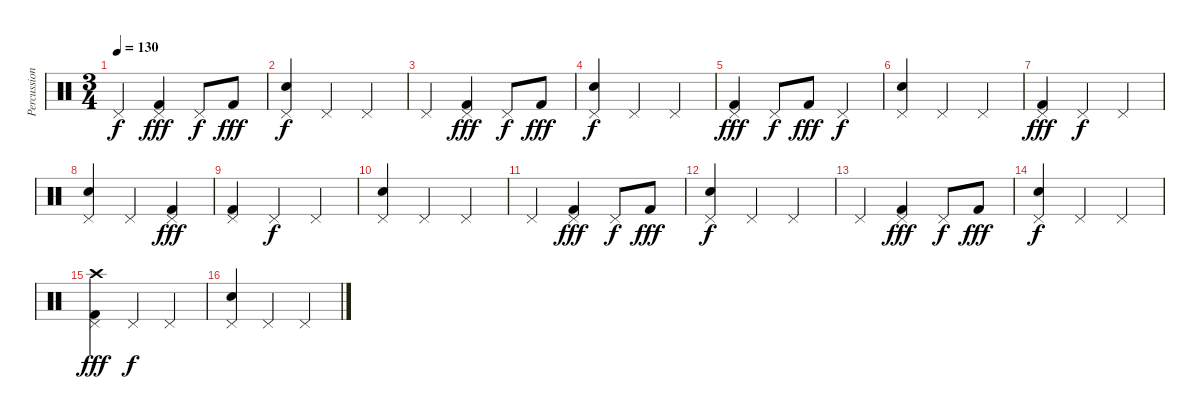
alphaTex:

\track ("Percussion" "Percussion") {instrument percussion}
\staff {score}
\articulation defaults
\ts (3 4)
\tempo 130
\clef neutral
\ks c "Pedal Hi-Hat (hit)".4{dy f}
("Pedal Hi-Hat (hit)" "Kick (hit) 2").4{dy fff} "Pedal Hi-Hat (hit)".8{dy f} "Kick (hit) 2".8{dy fff} |
("Pedal Hi-Hat (hit)" "Electric Snare (hit)").4{dy f} "Pedal Hi-Hat (hit)".4 "Pedal Hi-Hat (hit)".4 |
"Pedal Hi-Hat (hit)".4 ("Pedal Hi-Hat (hit)" "Kick (hit) 2").4{dy fff} "Pedal Hi-Hat (hit)".8{dy f} "Kick (hit) 2".8{dy fff} |
("Pedal Hi-Hat (hit)" "Electric Snare (hit)").4{dy f} "Pedal Hi-Hat (hit)".4 "Pedal Hi-Hat (hit)".4 |
("Pedal Hi-Hat (hit)" "Kick (hit) 2").4{dy fff} "Pedal Hi-Hat (hit)".8{dy f} "Kick (hit) 2".8{dy fff} "Pedal Hi-Hat (hit)".4{dy f} |
("Pedal Hi-Hat (hit)" "Electric Snare (hit)").4 "Pedal Hi-Hat (hit)".4 "Pedal Hi-Hat (hit)".4 |
("Pedal Hi-Hat (hit)" "Kick (hit) 2").4{dy fff} "Pedal Hi-Hat (hit)".4{dy f} "Pedal Hi-Hat (hit)".4 |
("Pedal Hi-Hat (hit)" "Electric Snare (hit)").4 "Pedal Hi-Hat (hit)".4 ("Pedal Hi-Hat (hit)" "Kick (hit) 2").4{dy fff} |
("Pedal Hi-Hat (hit)" "Kick (hit) 2").4 "Pedal Hi-Hat (hit)".4{dy f} "Pedal Hi-Hat (hit)".4 |
("Pedal Hi-Hat (hit)" "Electric Snare (hit)").4 "Pedal Hi-Hat (hit)".4 "Pedal Hi-Hat (hit)".4 |
"Pedal Hi-Hat (hit)".4 ("Pedal Hi-Hat (hit)" "Kick (hit) 2").4{dy fff} "Pedal Hi-Hat (hit)".8{dy f} "Kick (hit) 2".8{dy fff} |
("Pedal Hi-Hat (hit)" "Electric Snare (hit)").4{dy f} "Pedal Hi-Hat (hit)".4 "Pedal Hi-Hat (hit)".4 |
"Pedal Hi-Hat (hit)".4 ("Pedal Hi-Hat (hit)" "Kick (hit) 2").4{dy fff} "Pedal Hi-Hat (hit)".8{dy f} "Kick (hit) 2".8{dy fff} |
("Pedal Hi-Hat (hit)" "Electric Snare (hit)").4{dy f} "Pedal Hi-Hat (hit)".4 "Pedal Hi-Hat (hit)".4 |
("Crash high (hit)" "Pedal Hi-Hat (hit)" "Kick (hit) 2").4{dy fff} "Pedal Hi-Hat (hit)".4{dy f} "Pedal Hi-Hat (hit)".4 |
("Pedal Hi-Hat (hit)" "Electric Snare (hit)").4 "Pedal Hi-Hat (hit)".4 "Pedal Hi-Hat (hit)".4
